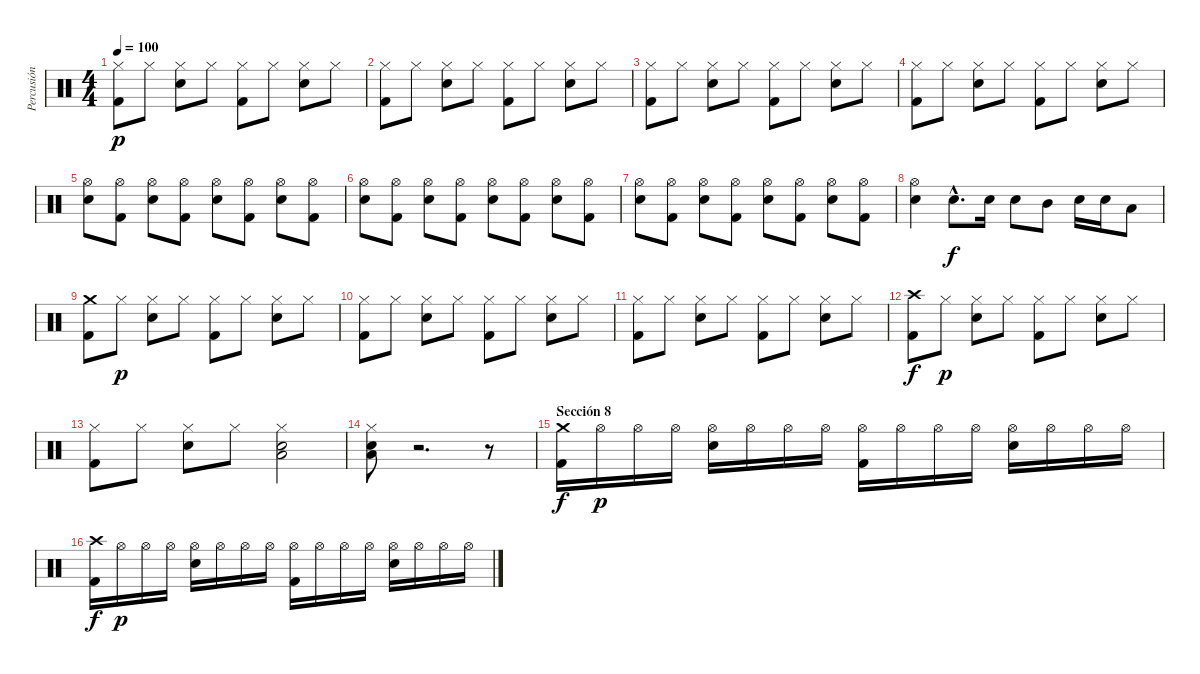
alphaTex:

\track ("Percusión" "Percusión") {instrument percussion}
\staff {score}
\articulation defaults
\ts (4 4)
\tempo 100
\clef neutral
\ks c
("Hi-Hat (closed)" "Kick (hit) 2").8{dy p} "Hi-Hat (closed)".8 ("Hi-Hat (closed)" "Snare (hit) 2").8 "Hi-Hat (closed)".8 ("Hi-Hat (closed)" "Kick (hit) 2").8 "Hi-Hat (closed)".8 ("Hi-Hat (closed)" "Snare (hit) 2").8 "Hi-Hat (closed)".8 |
("Hi-Hat (closed)" "Kick (hit) 2").8 "Hi-Hat (closed)".8 ("Hi-Hat (closed)" "Snare (hit) 2").8 "Hi-Hat (closed)".8 ("Hi-Hat (closed)" "Kick (hit) 2").8 "Hi-Hat (closed)".8 ("Hi-Hat (closed)" "Snare (hit) 2").8 "Hi-Hat (closed)".8 |
("Hi-Hat (closed)" "Kick (hit) 2").8 "Hi-Hat (closed)".8 ("Hi-Hat (closed)" "Snare (hit) 2").8 "Hi-Hat (closed)".8 ("Hi-Hat (closed)" "Kick (hit) 2").8 "Hi-Hat (closed)".8 ("Hi-Hat (closed)" "Snare (hit) 2").8 "Hi-Hat (closed)".8 |
("Hi-Hat (closed)" "Kick (hit) 2").8 "Hi-Hat (closed)".8 ("Hi-Hat (closed)" "Snare (hit) 2").8 "Hi-Hat (closed)".8 ("Hi-Hat (closed)" "Kick (hit) 2").8 "Hi-Hat (closed)".8 ("Hi-Hat (closed)" "Snare (hit) 2").8 "Hi-Hat (closed)".8 |
("Hi-Hat (open)" "Snare (hit) 2").8 ("Hi-Hat (open)" "Kick (hit) 2").8 ("Hi-Hat (open)" "Snare (hit) 2").8 ("Hi-Hat (open)" "Kick (hit) 2").8 ("Hi-Hat (open)" "Snare (hit) 2").8 ("Hi-Hat (open)" "Kick (hit) 2").8 ("Hi-Hat (open)" "Snare (hit) 2").8 ("Hi-Hat (open)" "Kick (hit) 2").8 |
("Hi-Hat (open)" "Snare (hit) 2").8 ("Hi-Hat (open)" "Kick (hit) 2").8 ("Hi-Hat (open)" "Snare (hit) 2").8 ("Hi-Hat (open)" "Kick (hit) 2").8 ("Hi-Hat (open)" "Snare (hit) 2").8 ("Hi-Hat (open)" "Kick (hit) 2").8 ("Hi-Hat (open)" "Snare (hit) 2").8 ("Hi-Hat (open)" "Kick (hit) 2").8 |
("Hi-Hat (open)" "Snare (hit) 2").8 ("Hi-Hat (open)" "Kick (hit) 2").8 ("Hi-Hat (open)" "Snare (hit) 2").8 ("Hi-Hat (open)" "Kick (hit) 2").8 ("Hi-Hat (open)" "Snare (hit) 2").8 ("Hi-Hat (open)" "Kick (hit) 2").8 ("Hi-Hat (open)" "Snare (hit) 2").8 ("Hi-Hat (open)" "Kick (hit) 2").8 |
("Hi-Hat (open)" "Snare (hit) 2").4 "Snare (hit) 2"{hac}.8{d dy f} "Snare (hit) 2".16 "Snare (hit) 2".8 "Mid Tom (hit)".8 "Snare (hit) 2".16 "Snare (hit) 2".16 "Low Tom (hit)".8 |
("Crash medium (hit)" "Kick (hit) 2").8 "Hi-Hat (closed)".8{dy p} ("Hi-Hat (closed)" "Snare (hit) 2").8 "Hi-Hat (closed)".8 ("Hi-Hat (closed)" "Kick (hit) 2").8 "Hi-Hat (closed)".8 ("Hi-Hat (closed)" "Snare (hit) 2").8 "Hi-Hat (closed)".8 |
("Hi-Hat (closed)" "Kick (hit) 2").8 "Hi-Hat (closed)".8 ("Hi-Hat (closed)" "Snare (hit) 2").8 "Hi-Hat (closed)".8 ("Hi-Hat (closed)" "Kick (hit) 2").8 "Hi-Hat (closed)".8 ("Hi-Hat (closed)" "Snare (hit) 2").8 "Hi-Hat (closed)".8 |
("Hi-Hat (closed)" "Kick (hit) 2").8 "Hi-Hat (closed)".8 ("Hi-Hat (closed)" "Snare (hit) 2").8 "Hi-Hat (closed)".8 ("Hi-Hat (closed)" "Kick (hit) 2").8 "Hi-Hat (closed)".8 ("Hi-Hat (closed)" "Snare (hit) 2").8 "Hi-Hat (closed)".8 |
("Crash high (hit)" "Kick (hit) 2").8{dy f} "Hi-Hat (closed)".8{dy p} ("Hi-Hat (closed)" "Snare (hit) 2").8 "Hi-Hat (closed)".8 ("Hi-Hat (closed)" "Kick (hit) 2").8 "Hi-Hat (closed)".8 ("Hi-Hat (closed)" "Snare (hit) 2").8 "Hi-Hat (closed)".8 |
("Hi-Hat (closed)" "Kick (hit) 2").8 "Hi-Hat (closed)".8 ("Hi-Hat (closed)" "Snare (hit) 2").8 "Hi-Hat (closed)".8 ("Hi-Hat (closed)" "Snare (hit) 2" "Low Tom (hit)").2 |
("Hi-Hat (closed)" "Snare (hit) 2" "Low Tom (hit)").8 r.2{d} r.8 |
\section ("" "Sección 8")
("Crash medium (hit)" "Kick (hit) 2").16{dy f} "Hi-Hat (open)".16{dy p} "Hi-Hat (open)".16 "Hi-Hat (open)".16 ("Hi-Hat (open)" "Snare (hit) 2").16 "Hi-Hat (open)".16 "Hi-Hat (open)".16 "Hi-Hat (open)".16 ("Hi-Hat (open)" "Kick (hit) 2").16 "Hi-Hat (open)".16 "Hi-Hat (open)".16 "Hi-Hat (open)".16 ("Hi-Hat (open)" "Snare (hit) 2").16 "Hi-Hat (open)".16 "Hi-Hat (open)".16 "Hi-Hat (open)".16 |
("Crash high (hit)" "Kick (hit) 2").16{dy f} "Hi-Hat (open)".16{dy p} "Hi-Hat (open)".16 "Hi-Hat (open)".16 ("Hi-Hat (open)" "Snare (hit) 2").16 "Hi-Hat (open)".16 "Hi-Hat (open)".16 "Hi-Hat (open)".16 ("Hi-Hat (open)" "Kick (hit) 2").16 "Hi-Hat (open)".16 "Hi-Hat (open)".16 "Hi-Hat (open)".16 ("Hi-Hat (open)" "Snare (hit) 2").16 "Hi-Hat (open)".16 "Hi-Hat (open)".16 "Hi-Hat (open)".16
